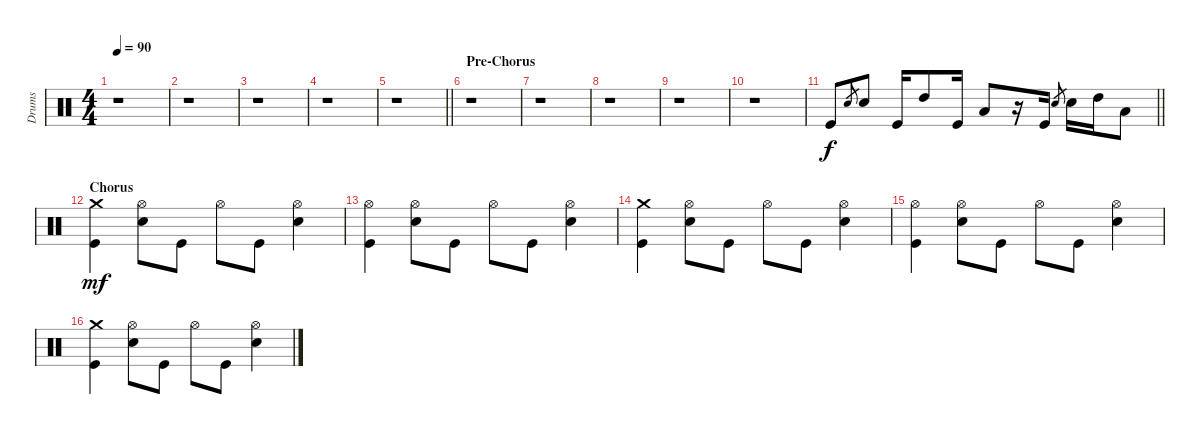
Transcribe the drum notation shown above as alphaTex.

\track ("Drums" "Drums") {instrument percussion}
\staff {score}
\articulation defaults
\ts (4 4)
\tempo 90
\clef neutral
\ks c
r.1{dy f} |
r.1 |
r.1 |
r.1 |
\barLineRight lightlight
r.1 |
\section ("" "Pre-Chorus")
r.1 |
r.1 |
r.1 |
r.1 |
r.1 |
\barLineRight lightlight "Kick (hit)".8 "Electric Snare (hit)".8{gr} "Electric Snare (hit)".8 "Kick (hit)".16 "High Tom (hit)".8 "Kick (hit)".16 "Low Tom (hit)".8
r.16 "Kick (hit)".16 "Electric Snare (hit)".8{gr} "Electric Snare (hit)".16 "High Tom (hit)".16 "Low Tom (hit)".8 |
\section ("" "Chorus")
("Crash medium (hit)" "Kick (hit)").4{dy mf} ("Hi-Hat (open)" "Electric Snare (hit)").8 "Kick (hit)".8 "Hi-Hat (open)".8 "Kick (hit)".8 ("Hi-Hat (open)" "Electric Snare (hit)").4 |
("Hi-Hat (open)" "Kick (hit)").4 ("Hi-Hat (open)" "Electric Snare (hit)").8 "Kick (hit)".8 "Hi-Hat (open)".8 "Kick (hit)".8 ("Hi-Hat (open)" "Electric Snare (hit)").4 |
("Crash medium (hit)" "Kick (hit)").4 ("Hi-Hat (open)" "Electric Snare (hit)").8 "Kick (hit)".8 "Hi-Hat (open)".8 "Kick (hit)".8 ("Hi-Hat (open)" "Electric Snare (hit)").4 |
("Hi-Hat (open)" "Kick (hit)").4 ("Hi-Hat (open)" "Electric Snare (hit)").8 "Kick (hit)".8 "Hi-Hat (open)".8 "Kick (hit)".8 ("Hi-Hat (open)" "Electric Snare (hit)").4 |
("Crash medium (hit)" "Kick (hit)").4 ("Hi-Hat (open)" "Electric Snare (hit)").8 "Kick (hit)".8 "Hi-Hat (open)".8 "Kick (hit)".8 ("Hi-Hat (open)" "Electric Snare (hit)").4
